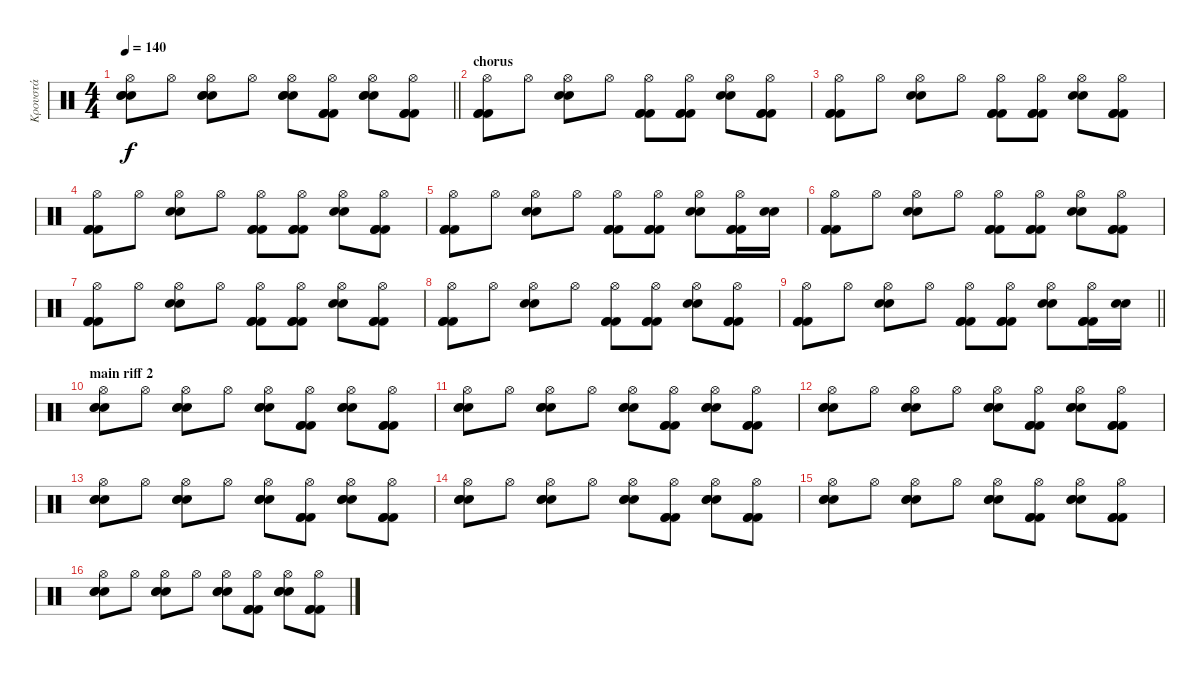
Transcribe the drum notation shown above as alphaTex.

\track ("Κρουστά" "Κρουστά") {instrument percussion}
\staff {score}
\articulation defaults
\ts (4 4)
\tempo 140
\clef neutral
\barLineRight lightlight
\ks c
("Electric Snare (hit)" "Electric Snare (hit)" "Electric Snare (hit)" "Hi-Hat (open)").8{dy f} "Hi-Hat (open)".8 ("Electric Snare (hit)" "Electric Snare (hit)" "Electric Snare (hit)" "Hi-Hat (open)").8 "Hi-Hat (open)".8 ("Electric Snare (hit)" "Electric Snare (hit)" "Electric Snare (hit)" "Hi-Hat (open)").8 ("Kick (hit) 2" "Kick (hit) 2" "Kick (hit) 2" "Hi-Hat (open)").8 ("Electric Snare (hit)" "Electric Snare (hit)" "Electric Snare (hit)" "Hi-Hat (open)").8 ("Kick (hit) 2" "Kick (hit) 2" "Kick (hit) 2" "Hi-Hat (open)").8 |
\section ("" "chorus")
("Kick (hit) 2" "Hi-Hat (open)" "Kick (hit) 2" "Kick (hit) 2").8 "Hi-Hat (open)".8 ("Electric Snare (hit)" "Hi-Hat (open)" "Electric Snare (hit)").8 "Hi-Hat (open)".8 ("Kick (hit) 2" "Kick (hit) 2" "Kick (hit) 2" "Hi-Hat (open)").8 ("Kick (hit) 2" "Kick (hit) 2" "Kick (hit) 2" "Hi-Hat (open)").8 ("Electric Snare (hit)" "Electric Snare (hit)" "Hi-Hat (open)").8 ("Kick (hit) 2" "Kick (hit) 2" "Kick (hit) 2" "Hi-Hat (open)").8 |
("Kick (hit) 2" "Hi-Hat (open)" "Kick (hit) 2" "Kick (hit) 2").8 "Hi-Hat (open)".8 ("Electric Snare (hit)" "Hi-Hat (open)" "Electric Snare (hit)").8 "Hi-Hat (open)".8 ("Kick (hit) 2" "Kick (hit) 2" "Kick (hit) 2" "Hi-Hat (open)").8 ("Kick (hit) 2" "Kick (hit) 2" "Kick (hit) 2" "Hi-Hat (open)").8 ("Electric Snare (hit)" "Electric Snare (hit)" "Hi-Hat (open)").8 ("Kick (hit) 2" "Kick (hit) 2" "Kick (hit) 2" "Hi-Hat (open)").8 |
("Kick (hit) 2" "Hi-Hat (open)" "Kick (hit) 2" "Kick (hit) 2").8 "Hi-Hat (open)".8 ("Electric Snare (hit)" "Hi-Hat (open)" "Electric Snare (hit)").8 "Hi-Hat (open)".8 ("Kick (hit) 2" "Kick (hit) 2" "Kick (hit) 2" "Hi-Hat (open)").8 ("Kick (hit) 2" "Kick (hit) 2" "Kick (hit) 2" "Hi-Hat (open)").8 ("Electric Snare (hit)" "Electric Snare (hit)" "Hi-Hat (open)").8 ("Kick (hit) 2" "Kick (hit) 2" "Kick (hit) 2" "Hi-Hat (open)").8 |
("Kick (hit) 2" "Hi-Hat (open)" "Kick (hit) 2" "Kick (hit) 2").8 "Hi-Hat (open)".8 ("Electric Snare (hit)" "Hi-Hat (open)" "Electric Snare (hit)").8 "Hi-Hat (open)".8 ("Kick (hit) 2" "Kick (hit) 2" "Kick (hit) 2" "Hi-Hat (open)").8 ("Kick (hit) 2" "Kick (hit) 2" "Kick (hit) 2" "Hi-Hat (open)").8 ("Electric Snare (hit)" "Electric Snare (hit)" "Hi-Hat (open)").8 ("Kick (hit) 2" "Kick (hit) 2" "Kick (hit) 2" "Hi-Hat (open)").16 ("Electric Snare (hit)" "Electric Snare (hit)").16 |
("Kick (hit) 2" "Hi-Hat (open)" "Kick (hit) 2" "Kick (hit) 2").8 "Hi-Hat (open)".8 ("Electric Snare (hit)" "Hi-Hat (open)" "Electric Snare (hit)").8 "Hi-Hat (open)".8 ("Kick (hit) 2" "Kick (hit) 2" "Kick (hit) 2" "Hi-Hat (open)").8 ("Kick (hit) 2" "Kick (hit) 2" "Kick (hit) 2" "Hi-Hat (open)").8 ("Electric Snare (hit)" "Electric Snare (hit)" "Hi-Hat (open)").8 ("Kick (hit) 2" "Kick (hit) 2" "Kick (hit) 2" "Hi-Hat (open)").8 |
("Kick (hit) 2" "Hi-Hat (open)" "Kick (hit) 2" "Kick (hit) 2").8 "Hi-Hat (open)".8 ("Electric Snare (hit)" "Hi-Hat (open)" "Electric Snare (hit)").8 "Hi-Hat (open)".8 ("Kick (hit) 2" "Kick (hit) 2" "Kick (hit) 2" "Hi-Hat (open)").8 ("Kick (hit) 2" "Kick (hit) 2" "Kick (hit) 2" "Hi-Hat (open)").8 ("Electric Snare (hit)" "Electric Snare (hit)" "Hi-Hat (open)").8 ("Kick (hit) 2" "Kick (hit) 2" "Kick (hit) 2" "Hi-Hat (open)").8 |
("Kick (hit) 2" "Hi-Hat (open)" "Kick (hit) 2" "Kick (hit) 2").8 "Hi-Hat (open)".8 ("Electric Snare (hit)" "Hi-Hat (open)" "Electric Snare (hit)").8 "Hi-Hat (open)".8 ("Kick (hit) 2" "Kick (hit) 2" "Kick (hit) 2" "Hi-Hat (open)").8 ("Kick (hit) 2" "Kick (hit) 2" "Kick (hit) 2" "Hi-Hat (open)").8 ("Electric Snare (hit)" "Electric Snare (hit)" "Hi-Hat (open)").8 ("Kick (hit) 2" "Kick (hit) 2" "Kick (hit) 2" "Hi-Hat (open)").8 |
\barLineRight lightlight
("Kick (hit) 2" "Hi-Hat (open)" "Kick (hit) 2" "Kick (hit) 2").8 "Hi-Hat (open)".8 ("Electric Snare (hit)" "Hi-Hat (open)" "Electric Snare (hit)").8 "Hi-Hat (open)".8 ("Kick (hit) 2" "Kick (hit) 2" "Kick (hit) 2" "Hi-Hat (open)").8 ("Kick (hit) 2" "Kick (hit) 2" "Kick (hit) 2" "Hi-Hat (open)").8 ("Electric Snare (hit)" "Electric Snare (hit)" "Hi-Hat (open)").8 ("Kick (hit) 2" "Kick (hit) 2" "Kick (hit) 2" "Hi-Hat (open)").16 ("Electric Snare (hit)" "Electric Snare (hit)").16 |
\section ("" "main riff 2")
("Electric Snare (hit)" "Electric Snare (hit)" "Electric Snare (hit)" "Hi-Hat (open)").8 "Hi-Hat (open)".8 ("Electric Snare (hit)" "Electric Snare (hit)" "Electric Snare (hit)" "Hi-Hat (open)").8 "Hi-Hat (open)".8 ("Electric Snare (hit)" "Electric Snare (hit)" "Electric Snare (hit)" "Hi-Hat (open)").8 ("Kick (hit) 2" "Kick (hit) 2" "Kick (hit) 2" "Hi-Hat (open)").8 ("Electric Snare (hit)" "Electric Snare (hit)" "Electric Snare (hit)" "Hi-Hat (open)").8 ("Kick (hit) 2" "Kick (hit) 2" "Kick (hit) 2" "Hi-Hat (open)").8 |
("Electric Snare (hit)" "Electric Snare (hit)" "Electric Snare (hit)" "Hi-Hat (open)").8 "Hi-Hat (open)".8 ("Electric Snare (hit)" "Electric Snare (hit)" "Electric Snare (hit)" "Hi-Hat (open)").8 "Hi-Hat (open)".8 ("Electric Snare (hit)" "Electric Snare (hit)" "Electric Snare (hit)" "Hi-Hat (open)").8 ("Kick (hit) 2" "Kick (hit) 2" "Kick (hit) 2" "Hi-Hat (open)").8 ("Electric Snare (hit)" "Electric Snare (hit)" "Electric Snare (hit)" "Hi-Hat (open)").8 ("Kick (hit) 2" "Kick (hit) 2" "Kick (hit) 2" "Hi-Hat (open)").8 |
("Electric Snare (hit)" "Electric Snare (hit)" "Electric Snare (hit)" "Hi-Hat (open)").8 "Hi-Hat (open)".8 ("Electric Snare (hit)" "Electric Snare (hit)" "Electric Snare (hit)" "Hi-Hat (open)").8 "Hi-Hat (open)".8 ("Electric Snare (hit)" "Electric Snare (hit)" "Electric Snare (hit)" "Hi-Hat (open)").8 ("Kick (hit) 2" "Kick (hit) 2" "Kick (hit) 2" "Hi-Hat (open)").8 ("Electric Snare (hit)" "Electric Snare (hit)" "Electric Snare (hit)" "Hi-Hat (open)").8 ("Kick (hit) 2" "Kick (hit) 2" "Kick (hit) 2" "Hi-Hat (open)").8 |
("Electric Snare (hit)" "Electric Snare (hit)" "Electric Snare (hit)" "Hi-Hat (open)").8 "Hi-Hat (open)".8 ("Electric Snare (hit)" "Electric Snare (hit)" "Electric Snare (hit)" "Hi-Hat (open)").8 "Hi-Hat (open)".8 ("Electric Snare (hit)" "Electric Snare (hit)" "Electric Snare (hit)" "Hi-Hat (open)").8 ("Kick (hit) 2" "Kick (hit) 2" "Kick (hit) 2" "Hi-Hat (open)").8 ("Electric Snare (hit)" "Electric Snare (hit)" "Electric Snare (hit)" "Hi-Hat (open)").8 ("Kick (hit) 2" "Kick (hit) 2" "Kick (hit) 2" "Hi-Hat (open)").8 |
("Electric Snare (hit)" "Electric Snare (hit)" "Electric Snare (hit)" "Hi-Hat (open)").8 "Hi-Hat (open)".8 ("Electric Snare (hit)" "Electric Snare (hit)" "Electric Snare (hit)" "Hi-Hat (open)").8 "Hi-Hat (open)".8 ("Electric Snare (hit)" "Electric Snare (hit)" "Electric Snare (hit)" "Hi-Hat (open)").8 ("Kick (hit) 2" "Kick (hit) 2" "Kick (hit) 2" "Hi-Hat (open)").8 ("Electric Snare (hit)" "Electric Snare (hit)" "Electric Snare (hit)" "Hi-Hat (open)").8 ("Kick (hit) 2" "Kick (hit) 2" "Kick (hit) 2" "Hi-Hat (open)").8 |
("Electric Snare (hit)" "Electric Snare (hit)" "Electric Snare (hit)" "Hi-Hat (open)").8 "Hi-Hat (open)".8 ("Electric Snare (hit)" "Electric Snare (hit)" "Electric Snare (hit)" "Hi-Hat (open)").8 "Hi-Hat (open)".8 ("Electric Snare (hit)" "Electric Snare (hit)" "Electric Snare (hit)" "Hi-Hat (open)").8 ("Kick (hit) 2" "Kick (hit) 2" "Kick (hit) 2" "Hi-Hat (open)").8 ("Electric Snare (hit)" "Electric Snare (hit)" "Electric Snare (hit)" "Hi-Hat (open)").8 ("Kick (hit) 2" "Kick (hit) 2" "Kick (hit) 2" "Hi-Hat (open)").8 |
("Electric Snare (hit)" "Electric Snare (hit)" "Electric Snare (hit)" "Hi-Hat (open)").8 "Hi-Hat (open)".8 ("Electric Snare (hit)" "Electric Snare (hit)" "Electric Snare (hit)" "Hi-Hat (open)").8 "Hi-Hat (open)".8 ("Electric Snare (hit)" "Electric Snare (hit)" "Electric Snare (hit)" "Hi-Hat (open)").8 ("Kick (hit) 2" "Kick (hit) 2" "Kick (hit) 2" "Hi-Hat (open)").8 ("Electric Snare (hit)" "Electric Snare (hit)" "Electric Snare (hit)" "Hi-Hat (open)").8 ("Kick (hit) 2" "Kick (hit) 2" "Kick (hit) 2" "Hi-Hat (open)").8
